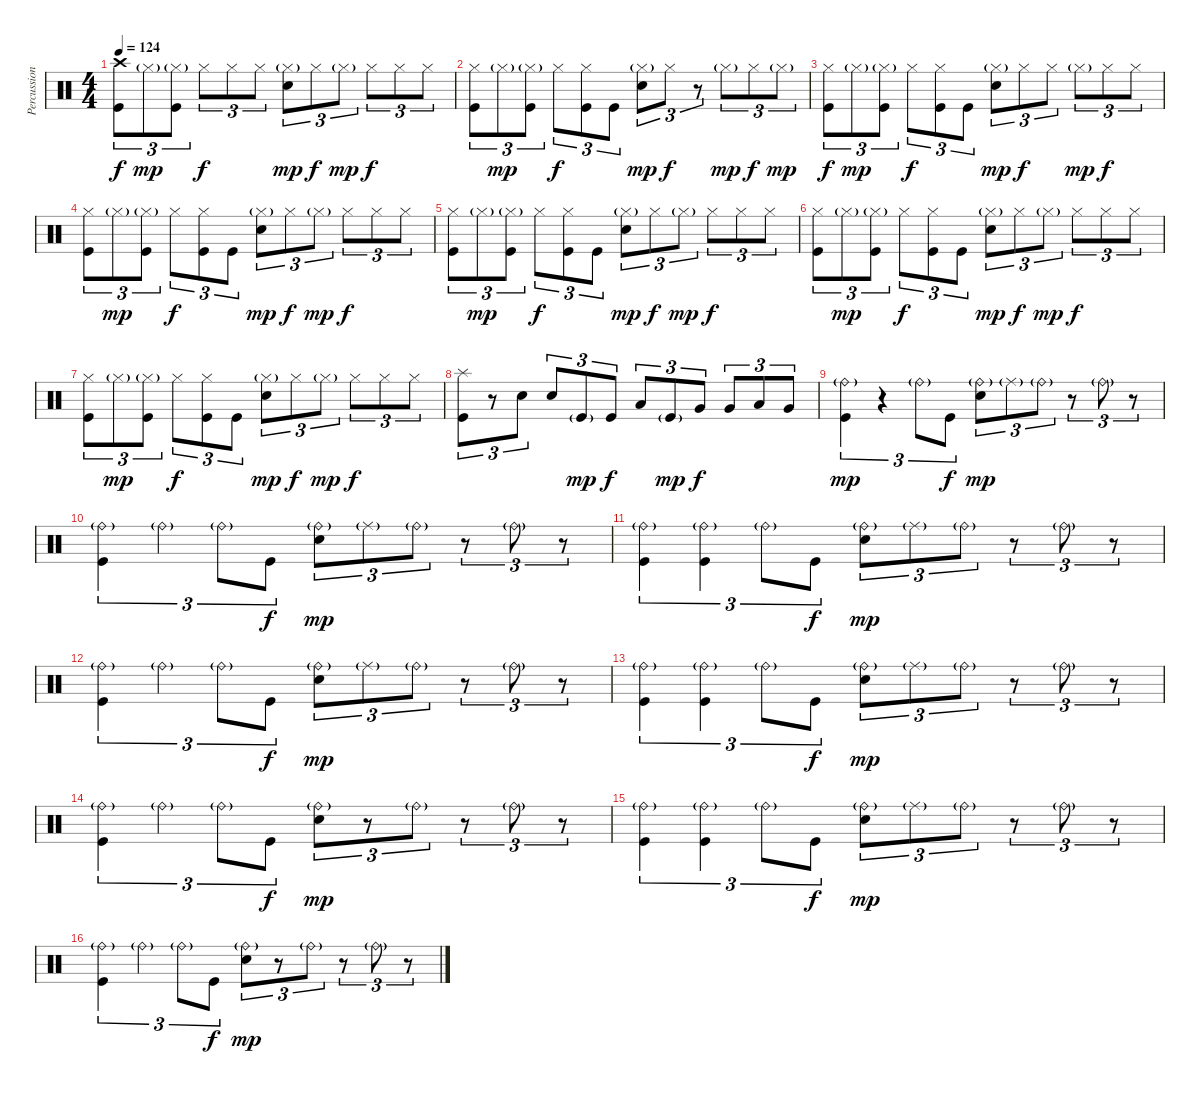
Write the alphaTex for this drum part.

\track ("Percussions" "Percussion") {instrument percussion}
\staff {score}
\articulation defaults
\ts (4 4)
\tempo 124
\clef neutral
\ks c
("Crash high (hit)" "Kick (hit)").8{tu (3 2) dy f} "Hi-Hat (closed)"{g}.8{tu (3 2) dy mp} ("Hi-Hat (closed)"{g} "Kick (hit)").8{tu (3 2)} "Hi-Hat (closed)".8{tu (3 2) dy f} "Hi-Hat (closed)".8{tu (3 2)} "Hi-Hat (closed)".8{tu (3 2)} ("Hi-Hat (closed)"{g} "Electric Snare (hit)").8{tu (3 2) dy mp} "Hi-Hat (closed)".8{tu (3 2) dy f} "Hi-Hat (closed)"{g}.8{tu (3 2) dy mp} "Hi-Hat (closed)".8{tu (3 2) dy f} "Hi-Hat (closed)".8{tu (3 2)} "Hi-Hat (closed)".8{tu (3 2)} |
("Hi-Hat (closed)" "Kick (hit)").8{tu (3 2)} "Hi-Hat (closed)"{g}.8{tu (3 2) dy mp} ("Hi-Hat (closed)"{g} "Kick (hit)").8{tu (3 2)} "Hi-Hat (closed)".8{tu (3 2) dy f} ("Hi-Hat (closed)" "Kick (hit)").8{tu (3 2)} "Kick (hit)".8{tu (3 2)} ("Hi-Hat (closed)"{g} "Electric Snare (hit)").8{tu (3 2) dy mp} "Hi-Hat (closed)".8{tu (3 2) dy f} r.8{tu (3 2)} "Hi-Hat (closed)"{g}.8{tu (3 2) dy mp} "Hi-Hat (closed)".8{tu (3 2) dy f} "Hi-Hat (closed)"{g}.8{tu (3 2) dy mp} |
("Hi-Hat (closed)" "Kick (hit)").8{tu (3 2) dy f} "Hi-Hat (closed)"{g}.8{tu (3 2) dy mp} ("Hi-Hat (closed)"{g} "Kick (hit)").8{tu (3 2)} "Hi-Hat (closed)".8{tu (3 2) dy f} ("Hi-Hat (closed)" "Kick (hit)").8{tu (3 2)} "Kick (hit)".8{tu (3 2)} ("Hi-Hat (closed)"{g} "Electric Snare (hit)").8{tu (3 2) dy mp} "Hi-Hat (closed)".8{tu (3 2) dy f} "Hi-Hat (closed)".8{tu (3 2)} "Hi-Hat (closed)"{g}.8{tu (3 2) dy mp} "Hi-Hat (closed)".8{tu (3 2) dy f} "Hi-Hat (closed)".8{tu (3 2)} |
("Hi-Hat (closed)" "Kick (hit)").8{tu (3 2)} "Hi-Hat (closed)"{g}.8{tu (3 2) dy mp} ("Hi-Hat (closed)"{g} "Kick (hit)").8{tu (3 2)} "Hi-Hat (closed)".8{tu (3 2) dy f} ("Hi-Hat (closed)" "Kick (hit)").8{tu (3 2)} "Kick (hit)".8{tu (3 2)} ("Hi-Hat (closed)"{g} "Electric Snare (hit)").8{tu (3 2) dy mp} "Hi-Hat (closed)".8{tu (3 2) dy f} "Hi-Hat (closed)"{g}.8{tu (3 2) dy mp} "Hi-Hat (closed)".8{tu (3 2) dy f} "Hi-Hat (closed)".8{tu (3 2)} "Hi-Hat (closed)".8{tu (3 2)} |
("Hi-Hat (closed)" "Kick (hit)").8{tu (3 2)} "Hi-Hat (closed)"{g}.8{tu (3 2) dy mp} ("Hi-Hat (closed)"{g} "Kick (hit)").8{tu (3 2)} "Hi-Hat (closed)".8{tu (3 2) dy f} ("Hi-Hat (closed)" "Kick (hit)").8{tu (3 2)} "Kick (hit)".8{tu (3 2)} ("Hi-Hat (closed)"{g} "Electric Snare (hit)").8{tu (3 2) dy mp} "Hi-Hat (closed)".8{tu (3 2) dy f} "Hi-Hat (closed)"{g}.8{tu (3 2) dy mp} "Hi-Hat (closed)".8{tu (3 2) dy f} "Hi-Hat (closed)".8{tu (3 2)} "Hi-Hat (closed)".8{tu (3 2)} |
("Hi-Hat (closed)" "Kick (hit)").8{tu (3 2)} "Hi-Hat (closed)"{g}.8{tu (3 2) dy mp} ("Hi-Hat (closed)"{g} "Kick (hit)").8{tu (3 2)} "Hi-Hat (closed)".8{tu (3 2) dy f} ("Hi-Hat (closed)" "Kick (hit)").8{tu (3 2)} "Kick (hit)".8{tu (3 2)} ("Hi-Hat (closed)"{g} "Electric Snare (hit)").8{tu (3 2) dy mp} "Hi-Hat (closed)".8{tu (3 2) dy f} "Hi-Hat (closed)"{g}.8{tu (3 2) dy mp} "Hi-Hat (closed)".8{tu (3 2) dy f} "Hi-Hat (closed)".8{tu (3 2)} "Hi-Hat (closed)".8{tu (3 2)} |
("Hi-Hat (closed)" "Kick (hit)").8{tu (3 2)} "Hi-Hat (closed)"{g}.8{tu (3 2) dy mp} ("Hi-Hat (closed)"{g} "Kick (hit)").8{tu (3 2)} "Hi-Hat (closed)".8{tu (3 2) dy f} ("Hi-Hat (closed)" "Kick (hit)").8{tu (3 2)} "Kick (hit)".8{tu (3 2)} ("Hi-Hat (closed)"{g} "Electric Snare (hit)").8{tu (3 2) dy mp} "Hi-Hat (closed)".8{tu (3 2) dy f} "Hi-Hat (closed)"{g}.8{tu (3 2) dy mp} "Hi-Hat (closed)".8{tu (3 2) dy f} "Hi-Hat (closed)".8{tu (3 2)} "Hi-Hat (closed)".8{tu (3 2)} |
("Splash (hit)" "Kick (hit)").8{tu (3 2)} r.8{tu (3 2)} "Electric Snare (hit)".8{tu (3 2)} "Electric Snare (hit)".8{tu (3 2)} "Kick (hit)"{g}.8{tu (3 2) dy mp} "Kick (hit)".8{tu (3 2) dy f} "Low Tom (hit)".8{tu (3 2)} "Kick (hit)"{g}.8{tu (3 2) dy mp} "Very Low Tom (hit)".8{tu (3 2) dy f} "Very Low Tom (hit)".8{tu (3 2)} "Low Floor Tom (hit)".8{tu (3 2)} "Very Low Tom (hit)".8{tu (3 2)} |
("Ride (bell)"{g} "Kick (hit)").4{tu (3 2) dy mp} r.4{tu (3 2)} "Ride (bell)"{g}.8{tu (3 2)} "Kick (hit)".8{tu (3 2) dy f} ("Ride (bell)"{g} "Electric Snare (hit)").8{tu (3 2) dy mp} "Ride (middle)"{g}.8{tu (3 2)} "Ride (bell)"{g}.8{tu (3 2)} r.8{tu (3 2)} "Ride (bell)"{g}.8{tu (3 2)} r.8{tu (3 2)} |
("Ride (bell)"{g} "Kick (hit)").4{tu (3 2)} "Ride (bell)"{g}.4{tu (3 2)} "Ride (bell)"{g}.8{tu (3 2)} "Kick (hit)".8{tu (3 2) dy f} ("Ride (bell)"{g} "Electric Snare (hit)").8{tu (3 2) dy mp} "Ride (middle)"{g}.8{tu (3 2)} "Ride (bell)"{g}.8{tu (3 2)} r.8{tu (3 2)} "Ride (bell)"{g}.8{tu (3 2)} r.8{tu (3 2)} |
("Ride (bell)"{g} "Kick (hit)").4{tu (3 2)} ("Ride (bell)"{g} "Kick (hit)").4{tu (3 2)} "Ride (bell)"{g}.8{tu (3 2)} "Kick (hit)".8{tu (3 2) dy f} ("Ride (bell)"{g} "Electric Snare (hit)").8{tu (3 2) dy mp} "Ride (middle)"{g}.8{tu (3 2)} "Ride (bell)"{g}.8{tu (3 2)} r.8{tu (3 2)} "Ride (bell)"{g}.8{tu (3 2)} r.8{tu (3 2)} |
("Ride (bell)"{g} "Kick (hit)").4{tu (3 2)} "Ride (bell)"{g}.4{tu (3 2)} "Ride (bell)"{g}.8{tu (3 2)} "Kick (hit)".8{tu (3 2) dy f} ("Ride (bell)"{g} "Electric Snare (hit)").8{tu (3 2) dy mp} "Ride (middle)"{g}.8{tu (3 2)} "Ride (bell)"{g}.8{tu (3 2)} r.8{tu (3 2)} "Ride (bell)"{g}.8{tu (3 2)} r.8{tu (3 2)} |
("Ride (bell)"{g} "Kick (hit)").4{tu (3 2)} ("Ride (bell)"{g} "Kick (hit)").4{tu (3 2)} "Ride (bell)"{g}.8{tu (3 2)} "Kick (hit)".8{tu (3 2) dy f} ("Ride (bell)"{g} "Electric Snare (hit)").8{tu (3 2) dy mp} "Ride (middle)"{g}.8{tu (3 2)} "Ride (bell)"{g}.8{tu (3 2)} r.8{tu (3 2)} "Ride (bell)"{g}.8{tu (3 2)} r.8{tu (3 2)} |
("Ride (bell)"{g} "Kick (hit)").4{tu (3 2)} "Ride (bell)"{g}.4{tu (3 2)} "Ride (bell)"{g}.8{tu (3 2)} "Kick (hit)".8{tu (3 2) dy f} ("Ride (bell)"{g} "Electric Snare (hit)").8{tu (3 2) dy mp} r.8{tu (3 2)} "Ride (bell)"{g}.8{tu (3 2)} r.8{tu (3 2)} "Ride (bell)"{g}.8{tu (3 2)} r.8{tu (3 2)} |
("Ride (bell)"{g} "Kick (hit)").4{tu (3 2)} ("Ride (bell)"{g} "Kick (hit)").4{tu (3 2)} "Ride (bell)"{g}.8{tu (3 2)} "Kick (hit)".8{tu (3 2) dy f} ("Ride (bell)"{g} "Electric Snare (hit)").8{tu (3 2) dy mp} "Ride (middle)"{g}.8{tu (3 2)} "Ride (bell)"{g}.8{tu (3 2)} r.8{tu (3 2)} "Ride (bell)"{g}.8{tu (3 2)} r.8{tu (3 2)} |
("Ride (bell)"{g} "Kick (hit)").4{tu (3 2)} "Ride (bell)"{g}.4{tu (3 2)} "Ride (bell)"{g}.8{tu (3 2)} "Kick (hit)".8{tu (3 2) dy f} ("Ride (bell)"{g} "Electric Snare (hit)").8{tu (3 2) dy mp} r.8{tu (3 2)} "Ride (bell)"{g}.8{tu (3 2)} r.8{tu (3 2)} "Ride (bell)"{g}.8{tu (3 2)} r.8{tu (3 2)}
